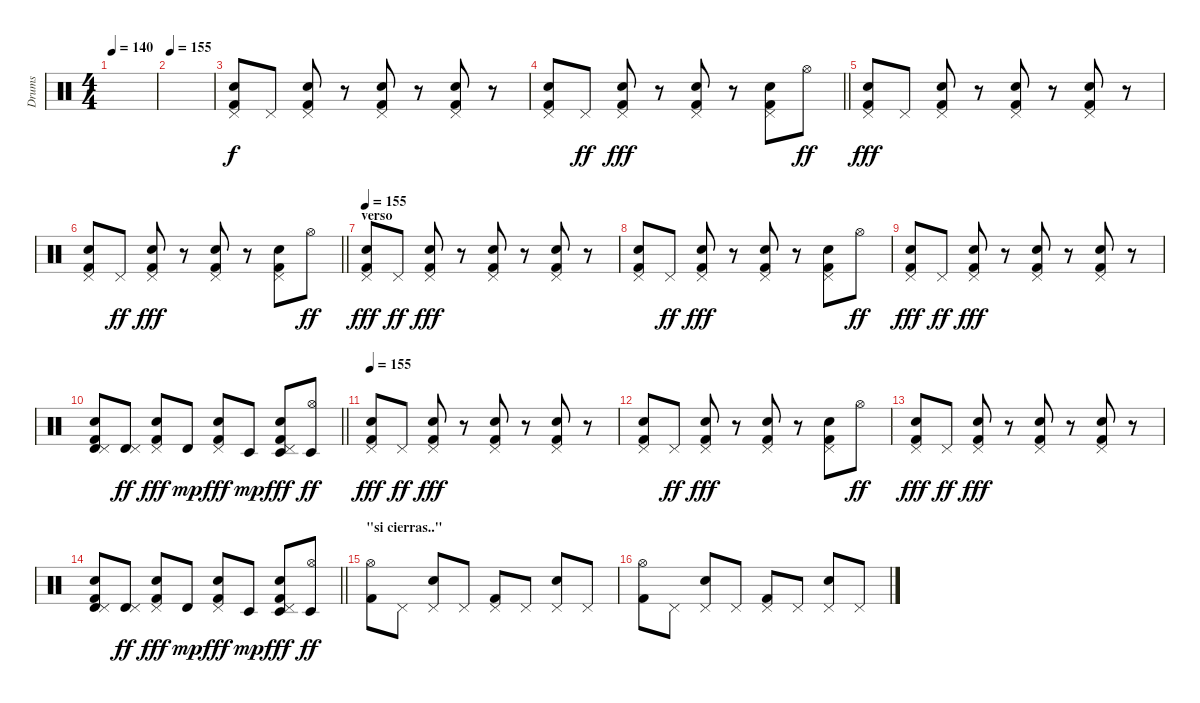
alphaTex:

\track ("Drums" "Drums") {instrument percussion}
\staff {score}
\articulation defaults
\ts (4 4)
\tempo 140
\clef neutral
\ks c
|
\tempo 155
|
("Pedal Hi-Hat (hit)" "Electric Snare (hit)" "Kick (hit) 2").8 "Pedal Hi-Hat (hit)".8 ("Pedal Hi-Hat (hit)" "Electric Snare (hit)" "Kick (hit) 2").8 r.8 ("Pedal Hi-Hat (hit)" "Electric Snare (hit)" "Kick (hit) 2").8 r.8 ("Pedal Hi-Hat (hit)" "Electric Snare (hit)" "Kick (hit) 2").8 r.8 |
\barLineRight lightlight
("Pedal Hi-Hat (hit)" "Electric Snare (hit)" "Kick (hit) 2").8 "Pedal Hi-Hat (hit)".8{dy ff} ("Pedal Hi-Hat (hit)" "Electric Snare (hit)" "Kick (hit) 2").8{dy fff} r.8 ("Pedal Hi-Hat (hit)" "Electric Snare (hit)" "Kick (hit) 2").8 r.8 ("Pedal Hi-Hat (hit)" "Electric Snare (hit)" "Kick (hit) 2").8 "Hi-Hat (open)".8{dy ff} |
("Pedal Hi-Hat (hit)" "Electric Snare (hit)" "Kick (hit) 2").8{dy fff} "Pedal Hi-Hat (hit)".8 ("Pedal Hi-Hat (hit)" "Electric Snare (hit)" "Kick (hit) 2").8 r.8 ("Pedal Hi-Hat (hit)" "Electric Snare (hit)" "Kick (hit) 2").8 r.8 ("Pedal Hi-Hat (hit)" "Electric Snare (hit)" "Kick (hit) 2").8 r.8 |
\barLineRight lightlight
("Pedal Hi-Hat (hit)" "Electric Snare (hit)" "Kick (hit) 2").8 "Pedal Hi-Hat (hit)".8{dy ff} ("Pedal Hi-Hat (hit)" "Electric Snare (hit)" "Kick (hit) 2").8{dy fff} r.8 ("Pedal Hi-Hat (hit)" "Electric Snare (hit)" "Kick (hit) 2").8 r.8 ("Pedal Hi-Hat (hit)" "Electric Snare (hit)" "Kick (hit) 2").8 "Hi-Hat (open)".8{dy ff} |
\section ("" "verso")
\tempo 155
("Pedal Hi-Hat (hit)" "Electric Snare (hit)" "Kick (hit) 2").8{dy fff} "Pedal Hi-Hat (hit)".8{dy ff} ("Pedal Hi-Hat (hit)" "Electric Snare (hit)" "Kick (hit) 2").8{dy fff} r.8 ("Pedal Hi-Hat (hit)" "Electric Snare (hit)" "Kick (hit) 2").8 r.8 ("Pedal Hi-Hat (hit)" "Electric Snare (hit)" "Kick (hit) 2").8 r.8 |
("Pedal Hi-Hat (hit)" "Electric Snare (hit)" "Kick (hit) 2").8 "Pedal Hi-Hat (hit)".8{dy ff} ("Pedal Hi-Hat (hit)" "Electric Snare (hit)" "Kick (hit) 2").8{dy fff} r.8 ("Pedal Hi-Hat (hit)" "Electric Snare (hit)" "Kick (hit) 2").8 r.8 ("Pedal Hi-Hat (hit)" "Electric Snare (hit)" "Kick (hit) 2").8 "Hi-Hat (open)".8{dy ff} |
("Pedal Hi-Hat (hit)" "Electric Snare (hit)" "Kick (hit) 2").8{dy fff} "Pedal Hi-Hat (hit)".8{dy ff} ("Pedal Hi-Hat (hit)" "Electric Snare (hit)" "Kick (hit) 2").8{dy fff} r.8 ("Pedal Hi-Hat (hit)" "Electric Snare (hit)" "Kick (hit) 2").8 r.8 ("Pedal Hi-Hat (hit)" "Electric Snare (hit)" "Kick (hit) 2").8 r.8 |
\barLineRight lightlight
("Timbale high (hit)" "Pedal Hi-Hat (hit)" "Electric Snare (hit)" "Kick (hit) 2").8 ("Timbale high (hit)" "Pedal Hi-Hat (hit)").8{dy ff} ("Pedal Hi-Hat (hit)" "Electric Snare (hit)" "Kick (hit) 2").8{dy fff} "Timbale high (hit)".8{dy mp} ("Pedal Hi-Hat (hit)" "Electric Snare (hit)" "Kick (hit) 2").8{dy fff} "Timbale low (hit)".8{dy mp} ("Timbale low (hit)" "Pedal Hi-Hat (hit)" "Electric Snare (hit)" "Kick (hit) 2").8{dy fff} ("Timbale low (hit)" "Hi-Hat (open)").8{dy ff} |
\section ("" "")
\tempo 155
("Pedal Hi-Hat (hit)" "Electric Snare (hit)" "Kick (hit) 2").8{dy fff} "Pedal Hi-Hat (hit)".8{dy ff} ("Pedal Hi-Hat (hit)" "Electric Snare (hit)" "Kick (hit) 2").8{dy fff} r.8 ("Pedal Hi-Hat (hit)" "Electric Snare (hit)" "Kick (hit) 2").8 r.8 ("Pedal Hi-Hat (hit)" "Electric Snare (hit)" "Kick (hit) 2").8 r.8 |
("Pedal Hi-Hat (hit)" "Electric Snare (hit)" "Kick (hit) 2").8 "Pedal Hi-Hat (hit)".8{dy ff} ("Pedal Hi-Hat (hit)" "Electric Snare (hit)" "Kick (hit) 2").8{dy fff} r.8 ("Pedal Hi-Hat (hit)" "Electric Snare (hit)" "Kick (hit) 2").8 r.8 ("Pedal Hi-Hat (hit)" "Electric Snare (hit)" "Kick (hit) 2").8 "Hi-Hat (open)".8{dy ff} |
("Pedal Hi-Hat (hit)" "Electric Snare (hit)" "Kick (hit) 2").8{dy fff} "Pedal Hi-Hat (hit)".8{dy ff} ("Pedal Hi-Hat (hit)" "Electric Snare (hit)" "Kick (hit) 2").8{dy fff} r.8 ("Pedal Hi-Hat (hit)" "Electric Snare (hit)" "Kick (hit) 2").8 r.8 ("Pedal Hi-Hat (hit)" "Electric Snare (hit)" "Kick (hit) 2").8 r.8 |
\barLineRight lightlight
("Timbale high (hit)" "Pedal Hi-Hat (hit)" "Electric Snare (hit)" "Kick (hit) 2").8 ("Timbale high (hit)" "Pedal Hi-Hat (hit)").8{dy ff} ("Pedal Hi-Hat (hit)" "Electric Snare (hit)" "Kick (hit) 2").8{dy fff} "Timbale high (hit)".8{dy mp} ("Pedal Hi-Hat (hit)" "Electric Snare (hit)" "Kick (hit) 2").8{dy fff} "Timbale low (hit)".8{dy mp} ("Timbale low (hit)" "Pedal Hi-Hat (hit)" "Electric Snare (hit)" "Kick (hit) 2").8{dy fff} ("Timbale low (hit)" "Hi-Hat (open)").8{dy ff} |
\section ("" "\"si cierras..\"")
("Hi-Hat (open)" "Kick (hit) 2").8 "Pedal Hi-Hat (hit)".8 ("Pedal Hi-Hat (hit)" "Electric Snare (hit)").8 "Pedal Hi-Hat (hit)".8 ("Pedal Hi-Hat (hit)" "Kick (hit) 2").8 "Pedal Hi-Hat (hit)".8 ("Pedal Hi-Hat (hit)" "Electric Snare (hit)").8 "Pedal Hi-Hat (hit)".8 |
("Hi-Hat (open)" "Kick (hit) 2").8 "Pedal Hi-Hat (hit)".8 ("Pedal Hi-Hat (hit)" "Electric Snare (hit)").8 "Pedal Hi-Hat (hit)".8 ("Pedal Hi-Hat (hit)" "Kick (hit) 2").8 "Pedal Hi-Hat (hit)".8 ("Pedal Hi-Hat (hit)" "Electric Snare (hit)").8 "Pedal Hi-Hat (hit)".8
